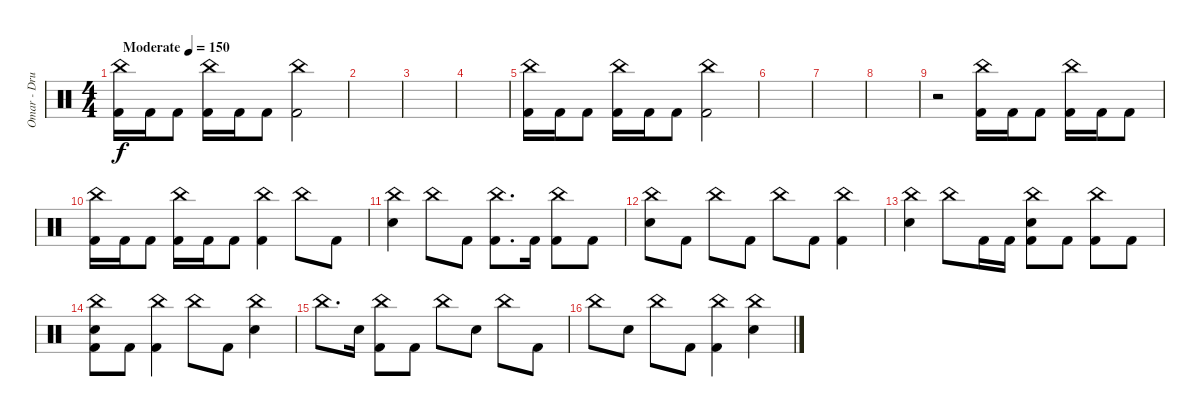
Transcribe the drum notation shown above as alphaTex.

\track ("Omar - Drums" "Omar - Dru") {instrument percussion}
\staff {score}
\articulation defaults
\ts (4 4)
\tempo (150 "Moderate")
\clef neutral
\ks c
("China (hit)" "Kick (hit) 2").16{dy f} "Kick (hit) 2".16 "Kick (hit) 2".8 ("China (hit)" "Kick (hit) 2").16 "Kick (hit) 2".16 "Kick (hit) 2".8 ("China (hit)" "Kick (hit) 2").2 |
|
|
|
("China (hit)" "Kick (hit) 2").16 "Kick (hit) 2".16 "Kick (hit) 2".8 ("China (hit)" "Kick (hit) 2").16 "Kick (hit) 2".16 "Kick (hit) 2".8 ("China (hit)" "Kick (hit) 2").2 |
|
|
|
r.2 ("China (hit)" "Kick (hit) 2").16 "Kick (hit) 2".16 "Kick (hit) 2".8 ("China (hit)" "Kick (hit) 2").16 "Kick (hit) 2".16 "Kick (hit) 2".8 |
("China (hit)" "Kick (hit) 2").16 "Kick (hit) 2".16 "Kick (hit) 2".8 ("China (hit)" "Kick (hit) 2").16 "Kick (hit) 2".16 "Kick (hit) 2".8 ("China (hit)" "Kick (hit) 2").4 "China (hit)".8 "Kick (hit) 2".8 |
("China (hit)" "Electric Snare (hit)").4 "China (hit)".8 "Kick (hit) 2".8 ("China (hit)" "Kick (hit) 2").8{d} "Kick (hit) 2".16 ("China (hit)" "Kick (hit) 2").8 "Kick (hit) 2".8 |
("China (hit)" "Electric Snare (hit)").8 "Kick (hit) 2".8 "China (hit)".8 "Kick (hit) 2".8 "China (hit)".8 "Kick (hit) 2".8 ("China (hit)" "Kick (hit) 2").4 |
("China (hit)" "Electric Snare (hit)").4 "China (hit)".8 "Kick (hit) 2".16 "Kick (hit) 2".16 ("China (hit)" "Electric Snare (hit)" "Kick (hit) 2").8 "Kick (hit) 2".8 ("China (hit)" "Kick (hit) 2").8 "Kick (hit) 2".8 |
("China (hit)" "Electric Snare (hit)" "Kick (hit) 2").8 "Kick (hit) 2".8 ("China (hit)" "Kick (hit) 2").4 "China (hit)".8 "Kick (hit) 2".8 ("China (hit)" "Electric Snare (hit)").4 |
"China (hit)".8{d} "Electric Snare (hit)".16 ("China (hit)" "Kick (hit) 2").8 "Kick (hit) 2".8 "China (hit)".8 "Electric Snare (hit)".8 "China (hit)".8 "Kick (hit) 2".8 |
"China (hit)".8 "Electric Snare (hit)".8 "China (hit)".8 "Kick (hit) 2".8 ("China (hit)" "Kick (hit) 2").4 ("China (hit)" "Electric Snare (hit)").4
